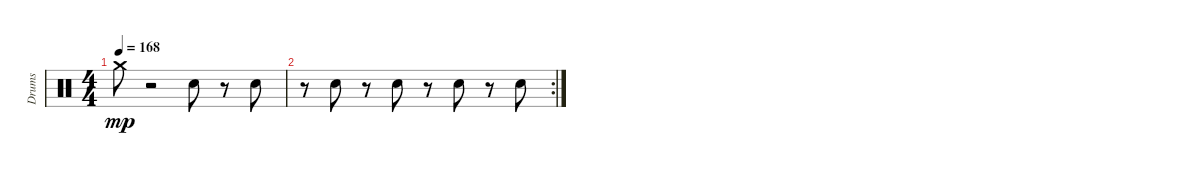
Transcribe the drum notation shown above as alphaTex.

\track ("Drums" "Drums") {instrument percussion}
\staff {score}
\articulation defaults
\ts (4 4)
\tempo 168
\clef neutral
\ks c "Crash medium (hit)".8{dy mp}
r.2 "Snare (hit) 2".8 r.8 "Snare (hit) 2".8 |
\rc 2
r.8 "Snare (hit) 2".8 r.8 "Snare (hit) 2".8 r.8 "Snare (hit) 2".8 r.8 "Snare (hit) 2".8
